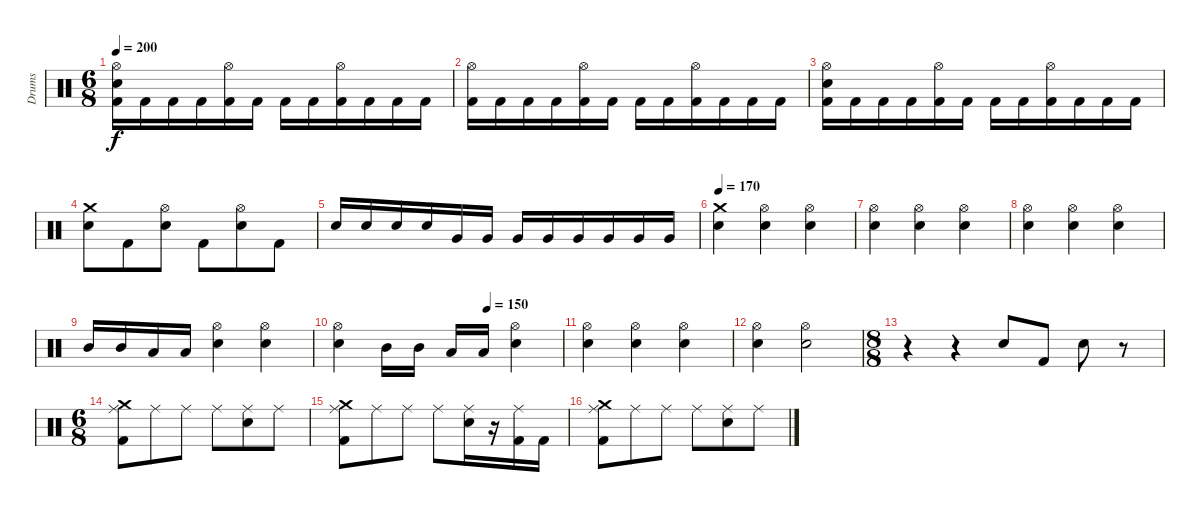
\track ("Drums" "Drums") {instrument percussion}
\staff {score}
\articulation defaults
\ts (6 8)
\tempo 200
\clef neutral
\ks c
("Hi-Hat (open)" "Electric Snare (hit)" "Kick (hit) 2").16{dy f} "Kick (hit) 2".16 "Kick (hit) 2".16 "Kick (hit) 2".16 ("Hi-Hat (open)" "Kick (hit) 2").16 "Kick (hit) 2".16 "Kick (hit) 2".16 "Kick (hit) 2".16 ("Hi-Hat (open)" "Kick (hit) 2").16 "Kick (hit) 2".16 "Kick (hit) 2".16 "Kick (hit) 2".16 |
("Hi-Hat (open)" "Kick (hit) 2").16 "Kick (hit) 2".16 "Kick (hit) 2".16 "Kick (hit) 2".16 ("Hi-Hat (open)" "Kick (hit) 2").16 "Kick (hit) 2".16 "Kick (hit) 2".16 "Kick (hit) 2".16 ("Hi-Hat (open)" "Kick (hit) 2").16 "Kick (hit) 2".16 "Kick (hit) 2".16 "Kick (hit) 2".16 |
("Hi-Hat (open)" "Electric Snare (hit)" "Kick (hit) 2").16 "Kick (hit) 2".16 "Kick (hit) 2".16 "Kick (hit) 2".16 ("Hi-Hat (open)" "Kick (hit) 2").16 "Kick (hit) 2".16 "Kick (hit) 2".16 "Kick (hit) 2".16 ("Hi-Hat (open)" "Kick (hit) 2").16 "Kick (hit) 2".16 "Kick (hit) 2".16 "Kick (hit) 2".16 |
("Crash medium (hit)" "Electric Snare (hit)").8 "Kick (hit) 2".8 ("Hi-Hat (open)" "Electric Snare (hit)").8 "Kick (hit) 2".8 ("Hi-Hat (open)" "Electric Snare (hit)").8 "Kick (hit) 2".8 |
"Electric Snare (hit)".16 "Electric Snare (hit)".16 "Electric Snare (hit)".16 "Electric Snare (hit)".16 "Very Low Tom (hit)".16 "Very Low Tom (hit)".16 "Very Low Tom (hit)".16 "Very Low Tom (hit)".16 "Very Low Tom (hit)".16 "Very Low Tom (hit)".16 "Very Low Tom (hit)".16 "Very Low Tom (hit)".16 |
\tempo 170
("Crash medium (hit)" "Electric Snare (hit)").4 ("Hi-Hat (open)" "Electric Snare (hit)").4 ("Hi-Hat (open)" "Electric Snare (hit)").4 |
("Hi-Hat (open)" "Electric Snare (hit)").4 ("Hi-Hat (open)" "Electric Snare (hit)").4 ("Hi-Hat (open)" "Electric Snare (hit)").4 |
("Hi-Hat (open)" "Electric Snare (hit)").4 ("Hi-Hat (open)" "Electric Snare (hit)").4 ("Hi-Hat (open)" "Electric Snare (hit)").4 |
"Mid Tom (hit)".16 "Mid Tom (hit)".16 "Low Tom (hit)".16 "Low Tom (hit)".16 ("Hi-Hat (open)" "Electric Snare (hit)").4 ("Hi-Hat (open)" "Electric Snare (hit)").4 |
\tempo (150 0.6666666666666666)
("Hi-Hat (open)" "Electric Snare (hit)").4 "Mid Tom (hit)".16 "Mid Tom (hit)".16 "Low Tom (hit)".16 "Low Tom (hit)".16 ("Hi-Hat (open)" "Electric Snare (hit)").4 |
("Hi-Hat (open)" "Electric Snare (hit)").4 ("Hi-Hat (open)" "Electric Snare (hit)").4 ("Hi-Hat (open)" "Electric Snare (hit)").4 |
("Hi-Hat (open)" "Electric Snare (hit)").4 ("Hi-Hat (open)" "Electric Snare (hit)").2 |
\ts (8 8)
r.4 r.4 "Electric Snare (hit)".8 "Kick (hit) 2".8 "Electric Snare (hit)".8 r.8 |
\ts (6 8)
("Crash medium (hit)" "Ride (middle)" "Kick (hit) 2").8 "Ride (middle)".8 "Ride (middle)".8 "Ride (middle)".8 ("Ride (middle)" "Electric Snare (hit)").8 "Ride (middle)".8 |
("Crash medium (hit)" "Ride (middle)" "Kick (hit) 2").8 "Ride (middle)".8 "Ride (middle)".8 "Ride (middle)".8 ("Ride (middle)" "Electric Snare (hit)").16 r.16 ("Ride (middle)" "Kick (hit) 2").16 "Kick (hit) 2".16 |
("Crash medium (hit)" "Ride (middle)" "Kick (hit) 2").8 "Ride (middle)".8 "Ride (middle)".8 "Ride (middle)".8 ("Ride (middle)" "Electric Snare (hit)").8 "Ride (middle)".8
